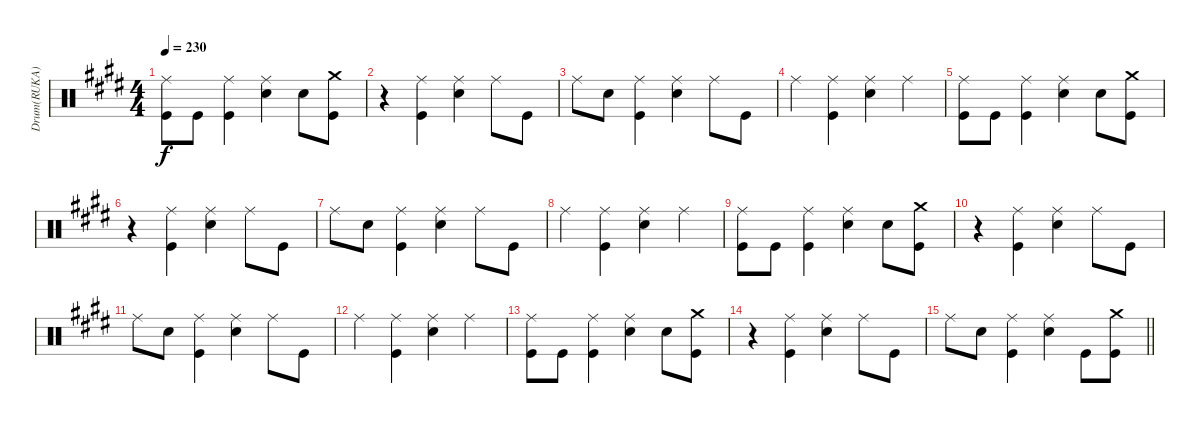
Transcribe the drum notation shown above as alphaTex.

\track ("Drum(RUKA)" "Drum(RUKA)") {instrument percussion}
\staff {score}
\articulation defaults
\ts (4 4)
\tempo 230
\clef neutral
\ks e
("Ride (middle)" "Kick (hit)").8{dy f} "Kick (hit)".8 ("Ride (middle)" "Kick (hit)").4 ("Ride (middle)" "Electric Snare (hit)").4 "Electric Snare (hit)".8 ("Crash medium (hit)" "Kick (hit)").8 |
r.4 ("Ride (middle)" "Kick (hit)").4 ("Ride (middle)" "Electric Snare (hit)").4 "Ride (middle)".8 "Kick (hit)".8 |
"Ride (middle)".8 "Electric Snare (hit)".8 ("Ride (middle)" "Kick (hit)").4 ("Ride (middle)" "Electric Snare (hit)").4 "Ride (middle)".8 "Kick (hit)".8 |
"Ride (middle)".4 ("Ride (middle)" "Kick (hit)").4 ("Ride (middle)" "Electric Snare (hit)").4 "Ride (middle)".4 |
("Ride (middle)" "Kick (hit)").8 "Kick (hit)".8 ("Ride (middle)" "Kick (hit)").4 ("Ride (middle)" "Electric Snare (hit)").4 "Electric Snare (hit)".8 ("Crash medium (hit)" "Kick (hit)").8 |
r.4 ("Ride (middle)" "Kick (hit)").4 ("Ride (middle)" "Electric Snare (hit)").4 "Ride (middle)".8 "Kick (hit)".8 |
"Ride (middle)".8 "Electric Snare (hit)".8 ("Ride (middle)" "Kick (hit)").4 ("Ride (middle)" "Electric Snare (hit)").4 "Ride (middle)".8 "Kick (hit)".8 |
"Ride (middle)".4 ("Ride (middle)" "Kick (hit)").4 ("Ride (middle)" "Electric Snare (hit)").4 "Ride (middle)".4 |
("Ride (middle)" "Kick (hit)").8 "Kick (hit)".8 ("Ride (middle)" "Kick (hit)").4 ("Ride (middle)" "Electric Snare (hit)").4 "Electric Snare (hit)".8 ("Crash medium (hit)" "Kick (hit)").8 |
r.4 ("Ride (middle)" "Kick (hit)").4 ("Ride (middle)" "Electric Snare (hit)").4 "Ride (middle)".8 "Kick (hit)".8 |
"Ride (middle)".8 "Electric Snare (hit)".8 ("Ride (middle)" "Kick (hit)").4 ("Ride (middle)" "Electric Snare (hit)").4 "Ride (middle)".8 "Kick (hit)".8 |
"Ride (middle)".4 ("Ride (middle)" "Kick (hit)").4 ("Ride (middle)" "Electric Snare (hit)").4 "Ride (middle)".4 |
("Ride (middle)" "Kick (hit)").8 "Kick (hit)".8 ("Ride (middle)" "Kick (hit)").4 ("Ride (middle)" "Electric Snare (hit)").4 "Electric Snare (hit)".8 ("Crash medium (hit)" "Kick (hit)").8 |
r.4 ("Ride (middle)" "Kick (hit)").4 ("Ride (middle)" "Electric Snare (hit)").4 "Ride (middle)".8 "Kick (hit)".8 |
\barLineRight lightlight "Ride (middle)".8 "Electric Snare (hit)".8
("Ride (middle)" "Kick (hit)").4 ("Ride (middle)" "Electric Snare (hit)").4 "Kick (hit)".8 ("Crash medium (hit)" "Kick (hit)").8
